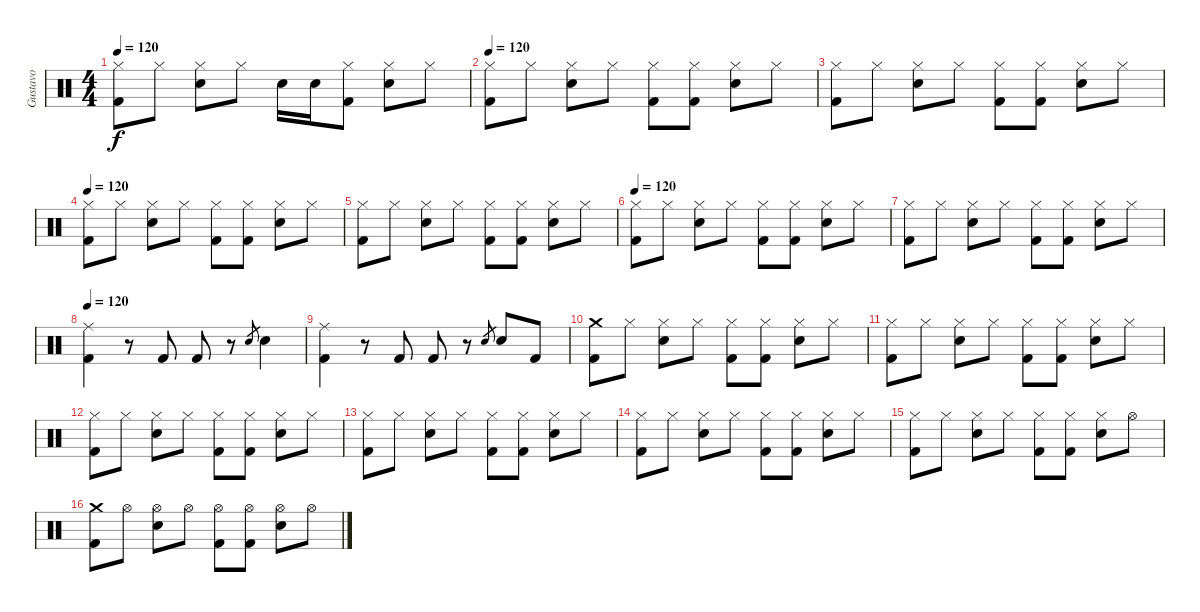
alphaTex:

\track ("Gustavo" "Gustavo") {instrument percussion}
\staff {score}
\articulation defaults
\ts (4 4)
\tempo 120
\clef neutral
\ks c
("Hi-Hat (closed)" "Kick (hit) 2").8{dy f} "Hi-Hat (closed)".8 ("Hi-Hat (closed)" "Snare (hit) 2").8 "Hi-Hat (closed)".8 "Snare (hit) 2".16 "Snare (hit) 2".16 ("Hi-Hat (closed)" "Kick (hit) 2").8 ("Hi-Hat (closed)" "Snare (hit) 2").8 "Hi-Hat (closed)".8 |
\tempo 120
("Hi-Hat (closed)" "Kick (hit) 2").8 "Hi-Hat (closed)".8 ("Hi-Hat (closed)" "Snare (hit) 2").8 "Hi-Hat (closed)".8 ("Hi-Hat (closed)" "Kick (hit) 2").8 ("Hi-Hat (closed)" "Kick (hit) 2").8 ("Hi-Hat (closed)" "Snare (hit) 2").8 "Hi-Hat (closed)".8 |
("Hi-Hat (closed)" "Kick (hit) 2").8 "Hi-Hat (closed)".8 ("Hi-Hat (closed)" "Snare (hit) 2").8 "Hi-Hat (closed)".8 ("Hi-Hat (closed)" "Kick (hit) 2").8 ("Hi-Hat (closed)" "Kick (hit) 2").8 ("Hi-Hat (closed)" "Snare (hit) 2").8 "Hi-Hat (closed)".8 |
\tempo 120
("Hi-Hat (closed)" "Kick (hit) 2").8 "Hi-Hat (closed)".8 ("Hi-Hat (closed)" "Snare (hit) 2").8 "Hi-Hat (closed)".8 ("Hi-Hat (closed)" "Kick (hit) 2").8 ("Hi-Hat (closed)" "Kick (hit) 2").8 ("Hi-Hat (closed)" "Snare (hit) 2").8 "Hi-Hat (closed)".8 |
("Hi-Hat (closed)" "Kick (hit) 2").8 "Hi-Hat (closed)".8 ("Hi-Hat (closed)" "Snare (hit) 2").8 "Hi-Hat (closed)".8 ("Hi-Hat (closed)" "Kick (hit) 2").8 ("Hi-Hat (closed)" "Kick (hit) 2").8 ("Hi-Hat (closed)" "Snare (hit) 2").8 "Hi-Hat (closed)".8 |
\tempo 120
("Hi-Hat (closed)" "Kick (hit) 2").8 "Hi-Hat (closed)".8 ("Hi-Hat (closed)" "Snare (hit) 2").8 "Hi-Hat (closed)".8 ("Hi-Hat (closed)" "Kick (hit) 2").8 ("Hi-Hat (closed)" "Kick (hit) 2").8 ("Hi-Hat (closed)" "Snare (hit) 2").8 "Hi-Hat (closed)".8 |
("Hi-Hat (closed)" "Kick (hit) 2").8 "Hi-Hat (closed)".8 ("Hi-Hat (closed)" "Snare (hit) 2").8 "Hi-Hat (closed)".8 ("Hi-Hat (closed)" "Kick (hit) 2").8 ("Hi-Hat (closed)" "Kick (hit) 2").8 ("Hi-Hat (closed)" "Snare (hit) 2").8 "Hi-Hat (closed)".8 |
\tempo 120
("Ride (middle)" "Kick (hit) 2").4 r.8 "Kick (hit) 2".8 "Kick (hit) 2".8 r.8 "Snare (hit) 2".8{gr} "Snare (hit) 2".4 |
("Ride (middle)" "Kick (hit) 2").4 r.8 "Kick (hit) 2".8 "Kick (hit) 2".8 r.8 "Snare (hit) 2".8{gr} "Snare (hit) 2".8 "Kick (hit) 2".8 |
("Crash medium (hit)" "Kick (hit) 2").8 "Hi-Hat (closed)".8 ("Hi-Hat (closed)" "Snare (hit) 2").8 "Hi-Hat (closed)".8 ("Hi-Hat (closed)" "Kick (hit) 2").8 ("Hi-Hat (closed)" "Kick (hit) 2").8 ("Hi-Hat (closed)" "Snare (hit) 2").8 "Hi-Hat (closed)".8 |
("Hi-Hat (closed)" "Kick (hit) 2").8 "Hi-Hat (closed)".8 ("Hi-Hat (closed)" "Snare (hit) 2").8 "Hi-Hat (closed)".8 ("Hi-Hat (closed)" "Kick (hit) 2").8 ("Hi-Hat (closed)" "Kick (hit) 2").8 ("Hi-Hat (closed)" "Snare (hit) 2").8 "Hi-Hat (closed)".8 |
("Hi-Hat (closed)" "Kick (hit) 2").8 "Hi-Hat (closed)".8 ("Hi-Hat (closed)" "Snare (hit) 2").8 "Hi-Hat (closed)".8 ("Hi-Hat (closed)" "Kick (hit) 2").8 ("Hi-Hat (closed)" "Kick (hit) 2").8 ("Hi-Hat (closed)" "Snare (hit) 2").8 "Hi-Hat (closed)".8 |
("Hi-Hat (closed)" "Kick (hit) 2").8 "Hi-Hat (closed)".8 ("Hi-Hat (closed)" "Snare (hit) 2").8 "Hi-Hat (closed)".8 ("Hi-Hat (closed)" "Kick (hit) 2").8 ("Hi-Hat (closed)" "Kick (hit) 2").8 ("Hi-Hat (closed)" "Snare (hit) 2").8 "Hi-Hat (closed)".8 |
("Hi-Hat (closed)" "Kick (hit) 2").8 "Hi-Hat (closed)".8 ("Hi-Hat (closed)" "Snare (hit) 2").8 "Hi-Hat (closed)".8 ("Hi-Hat (closed)" "Kick (hit) 2").8 ("Hi-Hat (closed)" "Kick (hit) 2").8 ("Hi-Hat (closed)" "Snare (hit) 2").8 "Hi-Hat (closed)".8 |
("Hi-Hat (closed)" "Kick (hit) 2").8 "Hi-Hat (closed)".8 ("Hi-Hat (closed)" "Snare (hit) 2").8 "Hi-Hat (closed)".8 ("Hi-Hat (closed)" "Kick (hit) 2").8 ("Hi-Hat (closed)" "Kick (hit) 2").8 ("Hi-Hat (closed)" "Snare (hit) 2").8 "Hi-Hat (open)".8 |
("Crash medium (hit)" "Kick (hit) 2").8 "Hi-Hat (open)".8 ("Hi-Hat (open)" "Snare (hit) 2").8 "Hi-Hat (open)".8 ("Hi-Hat (open)" "Kick (hit) 2").8 ("Hi-Hat (open)" "Kick (hit) 2").8 ("Hi-Hat (open)" "Snare (hit) 2").8 "Hi-Hat (open)".8
